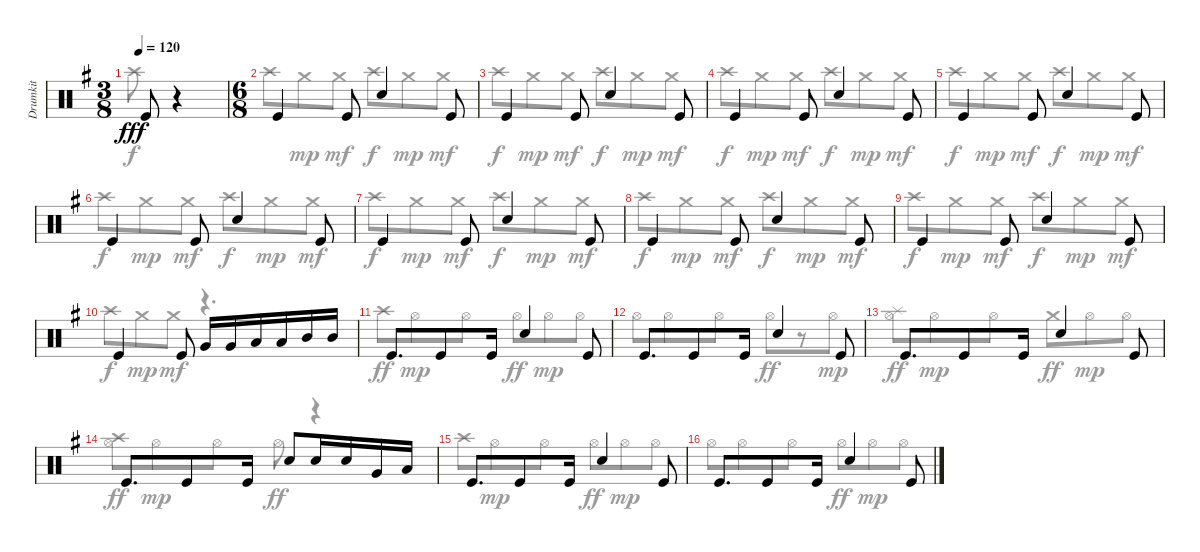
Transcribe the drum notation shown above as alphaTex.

\track ("Drumkit" "Drumkit") {instrument percussion}
\staff {score}
\articulation defaults
\voice
\ts (3 8)
\tempo 120
\clef neutral
\ks eminor "Kick (hit)".8{dy fff}
r.4 |
\ts (6 8)
"Kick (hit)".4 "Kick (hit)".8 "Snare (hit) 2".4 "Kick (hit)".8 |
"Kick (hit)".4 "Kick (hit)".8 "Snare (hit) 2".4 "Kick (hit)".8 |
"Kick (hit)".4 "Kick (hit)".8 "Snare (hit) 2".4 "Kick (hit)".8 |
"Kick (hit)".4 "Kick (hit)".8 "Snare (hit) 2".4 "Kick (hit)".8 |
"Kick (hit)".4 "Kick (hit)".8 "Snare (hit) 2".4 "Kick (hit)".8 |
"Kick (hit)".4 "Kick (hit)".8 "Snare (hit) 2".4 "Kick (hit)".8 |
"Kick (hit)".4 "Kick (hit)".8 "Snare (hit) 2".4 "Kick (hit)".8 |
"Kick (hit)".4 "Kick (hit)".8 "Snare (hit) 2".4 "Kick (hit)".8 |
"Kick (hit)".4 "Kick (hit)".8 "Very Low Tom (hit)".16 "Very Low Tom (hit)".16 "Low Tom (hit)".16 "Low Tom (hit)".16 "Mid Tom (hit)".16 "Mid Tom (hit)".16 |
"Kick (hit)".8{d} "Kick (hit)".8 "Kick (hit)".16 "Snare (hit) 2".4 "Kick (hit)".8 |
"Kick (hit)".8{d} "Kick (hit)".8 "Kick (hit)".16 "Snare (hit) 2".4 "Kick (hit)".8 |
"Kick (hit)".8{d} "Kick (hit)".8 "Kick (hit)".16 "Snare (hit) 2".4 "Kick (hit)".8 |
"Kick (hit)".8{d} "Kick (hit)".8 "Kick (hit)".16 "Snare (hit) 2".8 "Snare (hit) 2".16 "Snare (hit) 2".16 "Very Low Tom (hit)".16 "Low Floor Tom (hit)".16 |
"Kick (hit)".8{d} "Kick (hit)".8 "Kick (hit)".16 "Snare (hit) 2".4 "Kick (hit)".8 |
"Kick (hit)".8{d} "Kick (hit)".8 "Kick (hit)".16 "Snare (hit) 2".4 "Kick (hit)".8
\voice
\clef neutral
\ottava regular
\simile none
\ks eminor "Crash high (hit)".8{dy f}
r.4 |
"Crash high (hit)".8 "Crash medium (hit)".8{dy mp} "Crash medium (hit)".8{dy mf} "Crash high (hit)".8{dy f} "Crash medium (hit)".8{dy mp} "Crash medium (hit)".8{dy mf} |
"Crash high (hit)".8{dy f} "Crash medium (hit)".8{dy mp} "Crash medium (hit)".8{dy mf} "Crash high (hit)".8{dy f} "Crash medium (hit)".8{dy mp} "Crash medium (hit)".8{dy mf} |
"Crash high (hit)".8{dy f} "Crash medium (hit)".8{dy mp} "Crash medium (hit)".8{dy mf} "Crash high (hit)".8{dy f} "Crash medium (hit)".8{dy mp} "Crash medium (hit)".8{dy mf} |
"Crash high (hit)".8{dy f} "Crash medium (hit)".8{dy mp} "Crash medium (hit)".8{dy mf} "Crash high (hit)".8{dy f} "Crash medium (hit)".8{dy mp} "Crash medium (hit)".8{dy mf} |
"Crash high (hit)".8{dy f} "Crash medium (hit)".8{dy mp} "Crash medium (hit)".8{dy mf} "Crash high (hit)".8{dy f} "Crash medium (hit)".8{dy mp} "Crash medium (hit)".8{dy mf} |
"Crash high (hit)".8{dy f} "Crash medium (hit)".8{dy mp} "Crash medium (hit)".8{dy mf} "Crash high (hit)".8{dy f} "Crash medium (hit)".8{dy mp} "Crash medium (hit)".8{dy mf} |
"Crash high (hit)".8{dy f} "Crash medium (hit)".8{dy mp} "Crash medium (hit)".8{dy mf} "Crash high (hit)".8{dy f} "Crash medium (hit)".8{dy mp} "Crash medium (hit)".8{dy mf} |
"Crash high (hit)".8{dy f} "Crash medium (hit)".8{dy mp} "Crash medium (hit)".8{dy mf} "Crash high (hit)".8{dy f} "Crash medium (hit)".8{dy mp} "Crash medium (hit)".8{dy mf} |
"Crash high (hit)".8{dy f} "Crash medium (hit)".8{dy mp} "Crash medium (hit)".8{dy mf} r.4{d} |
"Crash high (hit)".8{dy ff} "Hi-Hat (open)".8{dy mp} "Hi-Hat (open)".8 "Hi-Hat (open)".8{dy ff} "Hi-Hat (open)".8{dy mp} "Hi-Hat (open)".8 |
"Hi-Hat (open)".8 "Hi-Hat (open)".8 "Hi-Hat (open)".8 "Hi-Hat (open)".8{dy ff} r.8 "Hi-Hat (open)".8{dy mp} |
("Splash (hit)" "Hi-Hat (open)").8{dy ff} "Hi-Hat (open)".8{dy mp} "Hi-Hat (open)".8 "Crash medium (hit)".8{dy ff} "Hi-Hat (open)".8{dy mp} "Hi-Hat (open)".8 |
("Crash high (hit)" "Hi-Hat (open)").8{dy ff} "Hi-Hat (open)".8{dy mp} "Hi-Hat (open)".8 "Hi-Hat (open)".8{dy ff} r.4 |
"Crash high (hit)".8 "Hi-Hat (open)".8{dy mp} "Hi-Hat (open)".8 "Hi-Hat (open)".8{dy ff} "Hi-Hat (open)".8{dy mp} "Hi-Hat (open)".8 |
"Hi-Hat (open)".8 "Hi-Hat (open)".8 "Hi-Hat (open)".8 "Hi-Hat (open)".8{dy ff} "Hi-Hat (open)".8{dy mp} "Hi-Hat (open)".8
